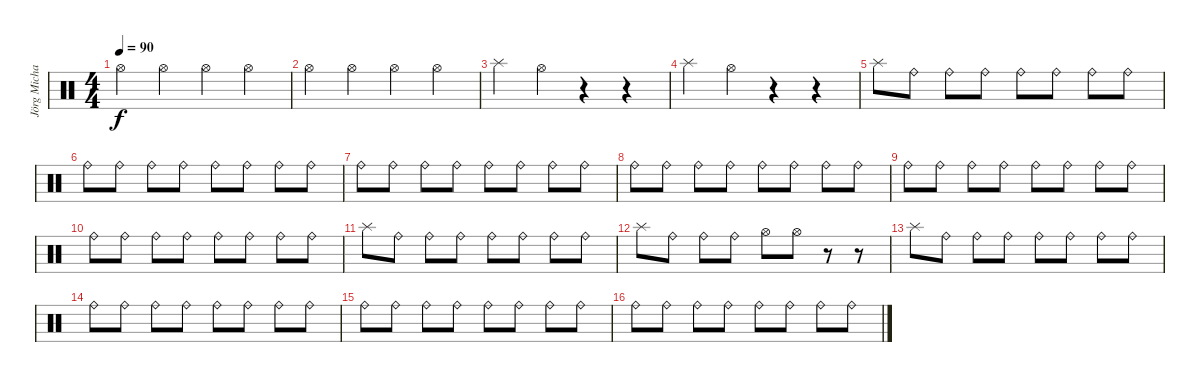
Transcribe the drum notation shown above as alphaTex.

\track ("Jörg Michael Drums" "Jörg Micha") {instrument percussion}
\staff {score}
\articulation defaults
\ts (4 4)
\tempo 90
\clef neutral
\ks c "Hi-Hat (open)".4{dy f} "Hi-Hat (open)".4 "Hi-Hat (open)".4 "Hi-Hat (open)".4
|
"Hi-Hat (open)".4 "Hi-Hat (open)".4 "Hi-Hat (open)".4 "Hi-Hat (open)".4 |
"Splash (hit)".4 "Hi-Hat (open)".4 r.4 r.4 |
"Splash (hit)".4 "Hi-Hat (open)".4 r.4 r.4 |
"Splash (hit)".8 "Ride (bell)".8 "Ride (bell)".8 "Ride (bell)".8 "Ride (bell)".8 "Ride (bell)".8 "Ride (bell)".8 "Ride (bell)".8 |
"Ride (bell)".8 "Ride (bell)".8 "Ride (bell)".8 "Ride (bell)".8 "Ride (bell)".8 "Ride (bell)".8 "Ride (bell)".8 "Ride (bell)".8 |
"Ride (bell)".8 "Ride (bell)".8 "Ride (bell)".8 "Ride (bell)".8 "Ride (bell)".8 "Ride (bell)".8 "Ride (bell)".8 "Ride (bell)".8 |
"Ride (bell)".8 "Ride (bell)".8 "Ride (bell)".8 "Ride (bell)".8 "Ride (bell)".8 "Ride (bell)".8 "Ride (bell)".8 "Ride (bell)".8 |
"Ride (bell)".8 "Ride (bell)".8 "Ride (bell)".8 "Ride (bell)".8 "Ride (bell)".8 "Ride (bell)".8 "Ride (bell)".8 "Ride (bell)".8 |
"Ride (bell)".8 "Ride (bell)".8 "Ride (bell)".8 "Ride (bell)".8 "Ride (bell)".8 "Ride (bell)".8 "Ride (bell)".8 "Ride (bell)".8 |
"Splash (hit)".8 "Ride (bell)".8 "Ride (bell)".8 "Ride (bell)".8 "Ride (bell)".8 "Ride (bell)".8 "Ride (bell)".8 "Ride (bell)".8 |
"Splash (hit)".8 "Ride (bell)".8 "Ride (bell)".8 "Ride (bell)".8 "Hi-Hat (open)".8 "Hi-Hat (open)".8 r.8 r.8 |
"Splash (hit)".8 "Ride (bell)".8 "Ride (bell)".8 "Ride (bell)".8 "Ride (bell)".8 "Ride (bell)".8 "Ride (bell)".8 "Ride (bell)".8 |
"Ride (bell)".8 "Ride (bell)".8 "Ride (bell)".8 "Ride (bell)".8 "Ride (bell)".8 "Ride (bell)".8 "Ride (bell)".8 "Ride (bell)".8 |
"Ride (bell)".8 "Ride (bell)".8 "Ride (bell)".8 "Ride (bell)".8 "Ride (bell)".8 "Ride (bell)".8 "Ride (bell)".8 "Ride (bell)".8 |
"Ride (bell)".8 "Ride (bell)".8 "Ride (bell)".8 "Ride (bell)".8 "Ride (bell)".8 "Ride (bell)".8 "Ride (bell)".8 "Ride (bell)".8
